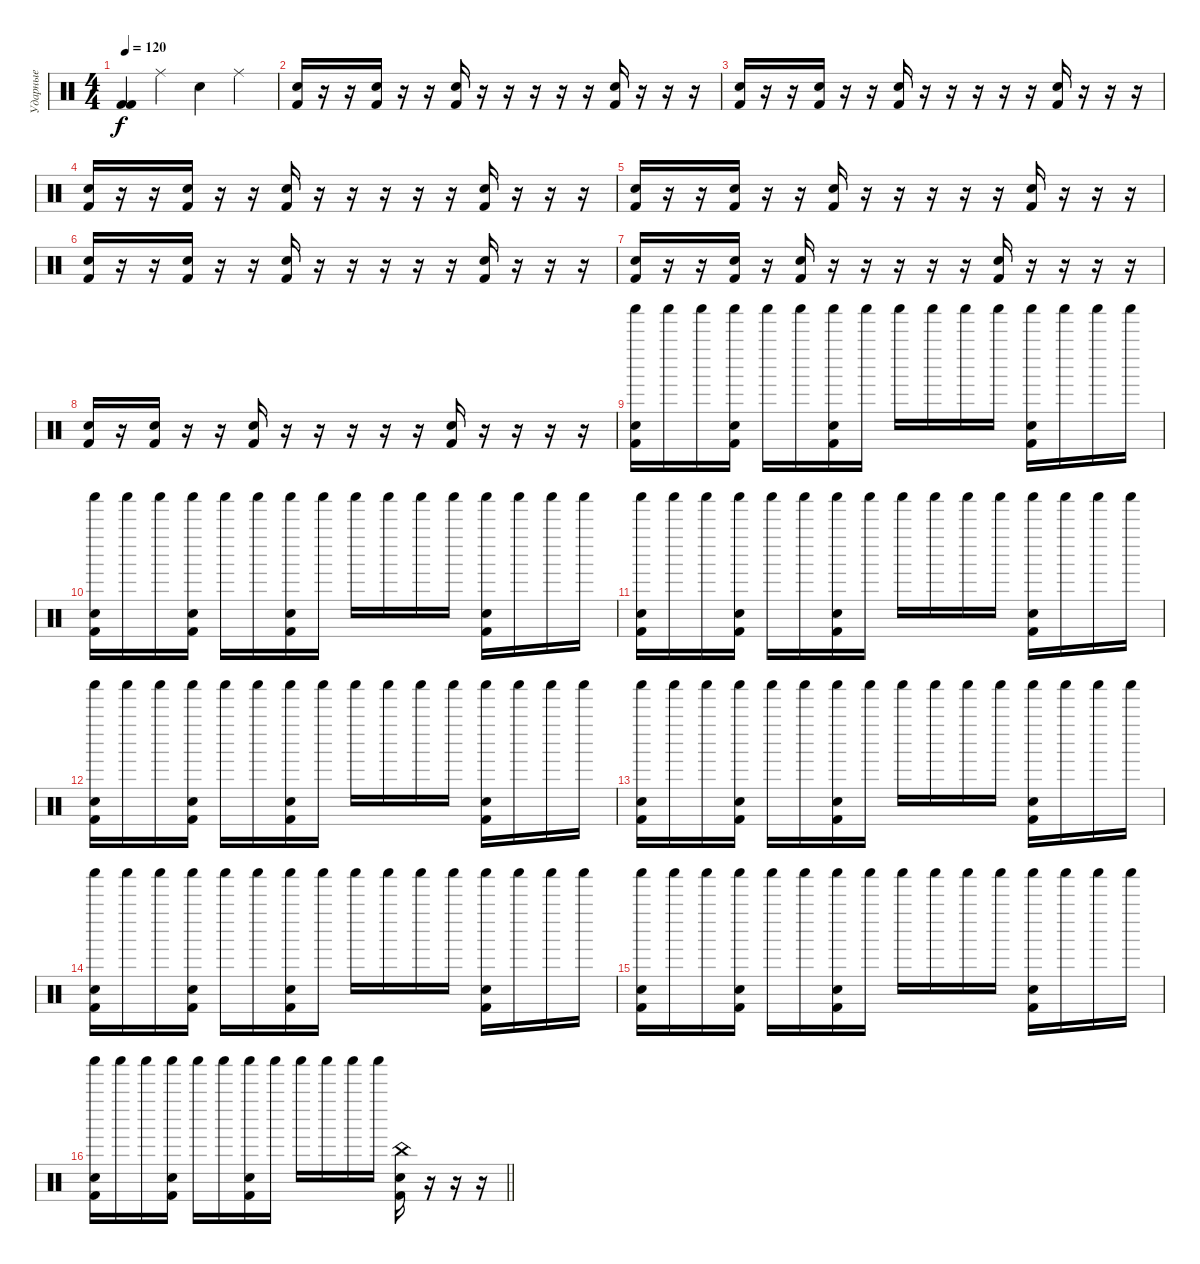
\track ("Ударные" "Ударные") {instrument percussion}
\staff {score}
\articulation defaults
\ts (4 4)
\tempo 120
\clef neutral
\ks c
("Kick (hit) 2" "Kick (hit) 2").4{dy f} "Ride (middle)".4 "Snare (hit) 2".4 "Ride (middle)".4 |
("Electric Snare (hit)" "Kick (hit) 2").16 r.16 r.16 ("Electric Snare (hit)" "Kick (hit) 2").16 r.16 r.16 ("Electric Snare (hit)" "Kick (hit) 2").16 r.16 r.16 r.16 r.16 r.16 ("Electric Snare (hit)" "Kick (hit) 2").16 r.16 r.16 r.16 |
("Electric Snare (hit)" "Kick (hit) 2").16 r.16 r.16 ("Electric Snare (hit)" "Kick (hit) 2").16 r.16 r.16 ("Electric Snare (hit)" "Kick (hit) 2").16 r.16 r.16 r.16 r.16 r.16 ("Electric Snare (hit)" "Kick (hit) 2").16 r.16 r.16 r.16 |
("Electric Snare (hit)" "Kick (hit) 2").16 r.16 r.16 ("Electric Snare (hit)" "Kick (hit) 2").16 r.16 r.16 ("Electric Snare (hit)" "Kick (hit) 2").16 r.16 r.16 r.16 r.16 r.16 ("Electric Snare (hit)" "Kick (hit) 2").16 r.16 r.16 r.16 |
("Electric Snare (hit)" "Kick (hit) 2").16 r.16 r.16 ("Electric Snare (hit)" "Kick (hit) 2").16 r.16 r.16 ("Electric Snare (hit)" "Kick (hit) 2").16 r.16 r.16 r.16 r.16 r.16 ("Electric Snare (hit)" "Kick (hit) 2").16 r.16 r.16 r.16 |
("Electric Snare (hit)" "Kick (hit) 2").16 r.16 r.16 ("Electric Snare (hit)" "Kick (hit) 2").16 r.16 r.16 ("Electric Snare (hit)" "Kick (hit) 2").16 r.16 r.16 r.16 r.16 r.16 ("Electric Snare (hit)" "Kick (hit) 2").16 r.16 r.16 r.16 |
("Electric Snare (hit)" "Kick (hit) 2").16 r.16 r.16 ("Electric Snare (hit)" "Kick (hit) 2").16 r.16 ("Electric Snare (hit)" "Kick (hit) 2").16 r.16 r.16 r.16 r.16 r.16 ("Electric Snare (hit)" "Kick (hit) 2").16 r.16 r.16 r.16 r.16 |
("Electric Snare (hit)" "Kick (hit) 2").16 r.16 ("Electric Snare (hit)" "Kick (hit) 2").16 r.16 r.16 ("Electric Snare (hit)" "Kick (hit) 2").16 r.16 r.16 r.16 r.16 r.16 ("Electric Snare (hit)" "Kick (hit) 2").16 r.16 r.16 r.16 r.16 |
("Electric Snare (hit)" "Kick (hit) 2" "Shaker (hit)").16 "Shaker (hit)".16 "Shaker (hit)".16 ("Electric Snare (hit)" "Kick (hit) 2" "Shaker (hit)").16 "Shaker (hit)".16 "Shaker (hit)".16 ("Electric Snare (hit)" "Kick (hit) 2" "Shaker (hit)").16 "Shaker (hit)".16 "Shaker (hit)".16 "Shaker (hit)".16 "Shaker (hit)".16 "Shaker (hit)".16 ("Electric Snare (hit)" "Kick (hit) 2" "Shaker (hit)").16 "Shaker (hit)".16 "Shaker (hit)".16 "Shaker (hit)".16 |
("Electric Snare (hit)" "Kick (hit) 2" "Shaker (hit)").16 "Shaker (hit)".16 "Shaker (hit)".16 ("Electric Snare (hit)" "Kick (hit) 2" "Shaker (hit)").16 "Shaker (hit)".16 "Shaker (hit)".16 ("Electric Snare (hit)" "Kick (hit) 2" "Shaker (hit)").16 "Shaker (hit)".16 "Shaker (hit)".16 "Shaker (hit)".16 "Shaker (hit)".16 "Shaker (hit)".16 ("Electric Snare (hit)" "Kick (hit) 2" "Shaker (hit)").16 "Shaker (hit)".16 "Shaker (hit)".16 "Shaker (hit)".16 |
("Electric Snare (hit)" "Kick (hit) 2" "Shaker (hit)").16 "Shaker (hit)".16 "Shaker (hit)".16 ("Electric Snare (hit)" "Kick (hit) 2" "Shaker (hit)").16 "Shaker (hit)".16 "Shaker (hit)".16 ("Electric Snare (hit)" "Kick (hit) 2" "Shaker (hit)").16 "Shaker (hit)".16 "Shaker (hit)".16 "Shaker (hit)".16 "Shaker (hit)".16 "Shaker (hit)".16 ("Electric Snare (hit)" "Kick (hit) 2" "Shaker (hit)").16 "Shaker (hit)".16 "Shaker (hit)".16 "Shaker (hit)".16 |
("Electric Snare (hit)" "Kick (hit) 2" "Shaker (hit)").16 "Shaker (hit)".16 "Shaker (hit)".16 ("Electric Snare (hit)" "Kick (hit) 2" "Shaker (hit)").16 "Shaker (hit)".16 "Shaker (hit)".16 ("Electric Snare (hit)" "Kick (hit) 2" "Shaker (hit)").16 "Shaker (hit)".16 "Shaker (hit)".16 "Shaker (hit)".16 "Shaker (hit)".16 "Shaker (hit)".16 ("Electric Snare (hit)" "Kick (hit) 2" "Shaker (hit)").16 "Shaker (hit)".16 "Shaker (hit)".16 "Shaker (hit)".16 |
("Electric Snare (hit)" "Kick (hit) 2" "Shaker (hit)").16 "Shaker (hit)".16 "Shaker (hit)".16 ("Electric Snare (hit)" "Kick (hit) 2" "Shaker (hit)").16 "Shaker (hit)".16 "Shaker (hit)".16 ("Electric Snare (hit)" "Kick (hit) 2" "Shaker (hit)").16 "Shaker (hit)".16 "Shaker (hit)".16 "Shaker (hit)".16 "Shaker (hit)".16 "Shaker (hit)".16 ("Electric Snare (hit)" "Kick (hit) 2" "Shaker (hit)").16 "Shaker (hit)".16 "Shaker (hit)".16 "Shaker (hit)".16 |
("Electric Snare (hit)" "Kick (hit) 2" "Shaker (hit)").16 "Shaker (hit)".16 "Shaker (hit)".16 ("Electric Snare (hit)" "Kick (hit) 2" "Shaker (hit)").16 "Shaker (hit)".16 "Shaker (hit)".16 ("Electric Snare (hit)" "Kick (hit) 2" "Shaker (hit)").16 "Shaker (hit)".16 "Shaker (hit)".16 "Shaker (hit)".16 "Shaker (hit)".16 "Shaker (hit)".16 ("Electric Snare (hit)" "Kick (hit) 2" "Shaker (hit)").16 "Shaker (hit)".16 "Shaker (hit)".16 "Shaker (hit)".16 |
("Electric Snare (hit)" "Kick (hit) 2" "Shaker (hit)").16 "Shaker (hit)".16 "Shaker (hit)".16 ("Electric Snare (hit)" "Kick (hit) 2" "Shaker (hit)").16 "Shaker (hit)".16 "Shaker (hit)".16 ("Electric Snare (hit)" "Kick (hit) 2" "Shaker (hit)").16 "Shaker (hit)".16 "Shaker (hit)".16 "Shaker (hit)".16 "Shaker (hit)".16 "Shaker (hit)".16 ("Electric Snare (hit)" "Kick (hit) 2" "Shaker (hit)").16 "Shaker (hit)".16 "Shaker (hit)".16 "Shaker (hit)".16 |
\barLineRight lightlight
("Electric Snare (hit)" "Kick (hit) 2" "Shaker (hit)").16 "Shaker (hit)".16 "Shaker (hit)".16 ("Electric Snare (hit)" "Kick (hit) 2" "Shaker (hit)").16 "Shaker (hit)".16 "Shaker (hit)".16 ("Electric Snare (hit)" "Kick (hit) 2" "Shaker (hit)").16 "Shaker (hit)".16 "Shaker (hit)".16 "Shaker (hit)".16 "Shaker (hit)".16 "Shaker (hit)".16 ("Electric Snare (hit)" "Kick (hit) 2" "China (hit)").16 r.16 r.16 r.16
